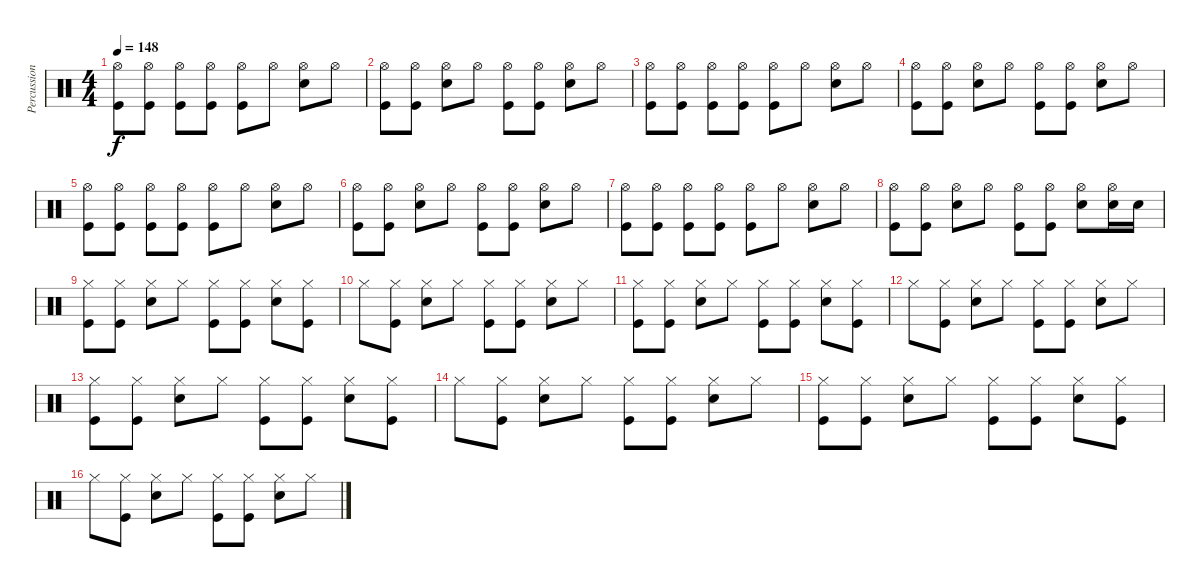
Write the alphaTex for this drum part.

\track ("Percussion" "Percussion") {instrument percussion}
\staff {score}
\articulation defaults
\ts (4 4)
\tempo 148
\clef neutral
\ks c
("Hi-Hat (open)" "Kick (hit)").8{dy f} ("Hi-Hat (open)" "Kick (hit)").8 ("Hi-Hat (open)" "Kick (hit)").8 ("Hi-Hat (open)" "Kick (hit)").8 ("Hi-Hat (open)" "Kick (hit)").8 "Hi-Hat (open)".8 ("Hi-Hat (open)" "Snare (hit) 2").8 "Hi-Hat (open)".8 |
("Hi-Hat (open)" "Kick (hit)").8 ("Hi-Hat (open)" "Kick (hit)").8 ("Hi-Hat (open)" "Snare (hit) 2").8 "Hi-Hat (open)".8 ("Hi-Hat (open)" "Kick (hit)").8 ("Hi-Hat (open)" "Kick (hit)").8 ("Hi-Hat (open)" "Snare (hit) 2").8 "Hi-Hat (open)".8 |
("Hi-Hat (open)" "Kick (hit)").8 ("Hi-Hat (open)" "Kick (hit)").8 ("Hi-Hat (open)" "Kick (hit)").8 ("Hi-Hat (open)" "Kick (hit)").8 ("Hi-Hat (open)" "Kick (hit)").8 "Hi-Hat (open)".8 ("Hi-Hat (open)" "Snare (hit) 2").8 "Hi-Hat (open)".8 |
("Hi-Hat (open)" "Kick (hit)").8 ("Hi-Hat (open)" "Kick (hit)").8 ("Hi-Hat (open)" "Snare (hit) 2").8 "Hi-Hat (open)".8 ("Hi-Hat (open)" "Kick (hit)").8 ("Hi-Hat (open)" "Kick (hit)").8 ("Hi-Hat (open)" "Snare (hit) 2").8 "Hi-Hat (open)".8 |
("Hi-Hat (open)" "Kick (hit)").8 ("Hi-Hat (open)" "Kick (hit)").8 ("Hi-Hat (open)" "Kick (hit)").8 ("Hi-Hat (open)" "Kick (hit)").8 ("Hi-Hat (open)" "Kick (hit)").8 "Hi-Hat (open)".8 ("Hi-Hat (open)" "Snare (hit) 2").8 "Hi-Hat (open)".8 |
("Hi-Hat (open)" "Kick (hit)").8 ("Hi-Hat (open)" "Kick (hit)").8 ("Hi-Hat (open)" "Snare (hit) 2").8 "Hi-Hat (open)".8 ("Hi-Hat (open)" "Kick (hit)").8 ("Hi-Hat (open)" "Kick (hit)").8 ("Hi-Hat (open)" "Snare (hit) 2").8 "Hi-Hat (open)".8 |
("Hi-Hat (open)" "Kick (hit)").8 ("Hi-Hat (open)" "Kick (hit)").8 ("Hi-Hat (open)" "Kick (hit)").8 ("Hi-Hat (open)" "Kick (hit)").8 ("Hi-Hat (open)" "Kick (hit)").8 "Hi-Hat (open)".8 ("Hi-Hat (open)" "Snare (hit) 2").8 "Hi-Hat (open)".8 |
("Hi-Hat (open)" "Kick (hit)").8 ("Hi-Hat (open)" "Kick (hit)").8 ("Hi-Hat (open)" "Snare (hit) 2").8 "Hi-Hat (open)".8 ("Hi-Hat (open)" "Kick (hit)").8 ("Hi-Hat (open)" "Kick (hit)").8 ("Hi-Hat (open)" "Snare (hit) 2").8 ("Hi-Hat (open)" "Snare (hit) 2").16 "Snare (hit) 2".16 |
("Hi-Hat (closed)" "Kick (hit)").8 ("Hi-Hat (closed)" "Kick (hit)").8 ("Hi-Hat (closed)" "Snare (hit) 2").8 "Hi-Hat (closed)".8 ("Hi-Hat (closed)" "Kick (hit)").8 ("Hi-Hat (closed)" "Kick (hit)").8 ("Hi-Hat (closed)" "Snare (hit) 2").8 ("Hi-Hat (closed)" "Kick (hit)").8 |
"Hi-Hat (closed)".8 ("Hi-Hat (closed)" "Kick (hit)").8 ("Hi-Hat (closed)" "Snare (hit) 2").8 "Hi-Hat (closed)".8 ("Hi-Hat (closed)" "Kick (hit)").8 ("Hi-Hat (closed)" "Kick (hit)").8 ("Hi-Hat (closed)" "Snare (hit) 2").8 "Hi-Hat (closed)".8 |
("Hi-Hat (closed)" "Kick (hit)").8 ("Hi-Hat (closed)" "Kick (hit)").8 ("Hi-Hat (closed)" "Snare (hit) 2").8 "Hi-Hat (closed)".8 ("Hi-Hat (closed)" "Kick (hit)").8 ("Hi-Hat (closed)" "Kick (hit)").8 ("Hi-Hat (closed)" "Snare (hit) 2").8 ("Hi-Hat (closed)" "Kick (hit)").8 |
"Hi-Hat (closed)".8 ("Hi-Hat (closed)" "Kick (hit)").8 ("Hi-Hat (closed)" "Snare (hit) 2").8 "Hi-Hat (closed)".8 ("Hi-Hat (closed)" "Kick (hit)").8 ("Hi-Hat (closed)" "Kick (hit)").8 ("Hi-Hat (closed)" "Snare (hit) 2").8 "Hi-Hat (closed)".8 |
("Hi-Hat (closed)" "Kick (hit)").8 ("Hi-Hat (closed)" "Kick (hit)").8 ("Hi-Hat (closed)" "Snare (hit) 2").8 "Hi-Hat (closed)".8 ("Hi-Hat (closed)" "Kick (hit)").8 ("Hi-Hat (closed)" "Kick (hit)").8 ("Hi-Hat (closed)" "Snare (hit) 2").8 ("Hi-Hat (closed)" "Kick (hit)").8 |
"Hi-Hat (closed)".8 ("Hi-Hat (closed)" "Kick (hit)").8 ("Hi-Hat (closed)" "Snare (hit) 2").8 "Hi-Hat (closed)".8 ("Hi-Hat (closed)" "Kick (hit)").8 ("Hi-Hat (closed)" "Kick (hit)").8 ("Hi-Hat (closed)" "Snare (hit) 2").8 "Hi-Hat (closed)".8 |
("Hi-Hat (closed)" "Kick (hit)").8 ("Hi-Hat (closed)" "Kick (hit)").8 ("Hi-Hat (closed)" "Snare (hit) 2").8 "Hi-Hat (closed)".8 ("Hi-Hat (closed)" "Kick (hit)").8 ("Hi-Hat (closed)" "Kick (hit)").8 ("Hi-Hat (closed)" "Snare (hit) 2").8 ("Hi-Hat (closed)" "Kick (hit)").8 |
"Hi-Hat (closed)".8 ("Hi-Hat (closed)" "Kick (hit)").8 ("Hi-Hat (closed)" "Snare (hit) 2").8 "Hi-Hat (closed)".8 ("Hi-Hat (closed)" "Kick (hit)").8 ("Hi-Hat (closed)" "Kick (hit)").8 ("Hi-Hat (closed)" "Snare (hit) 2").8 "Hi-Hat (closed)".8
